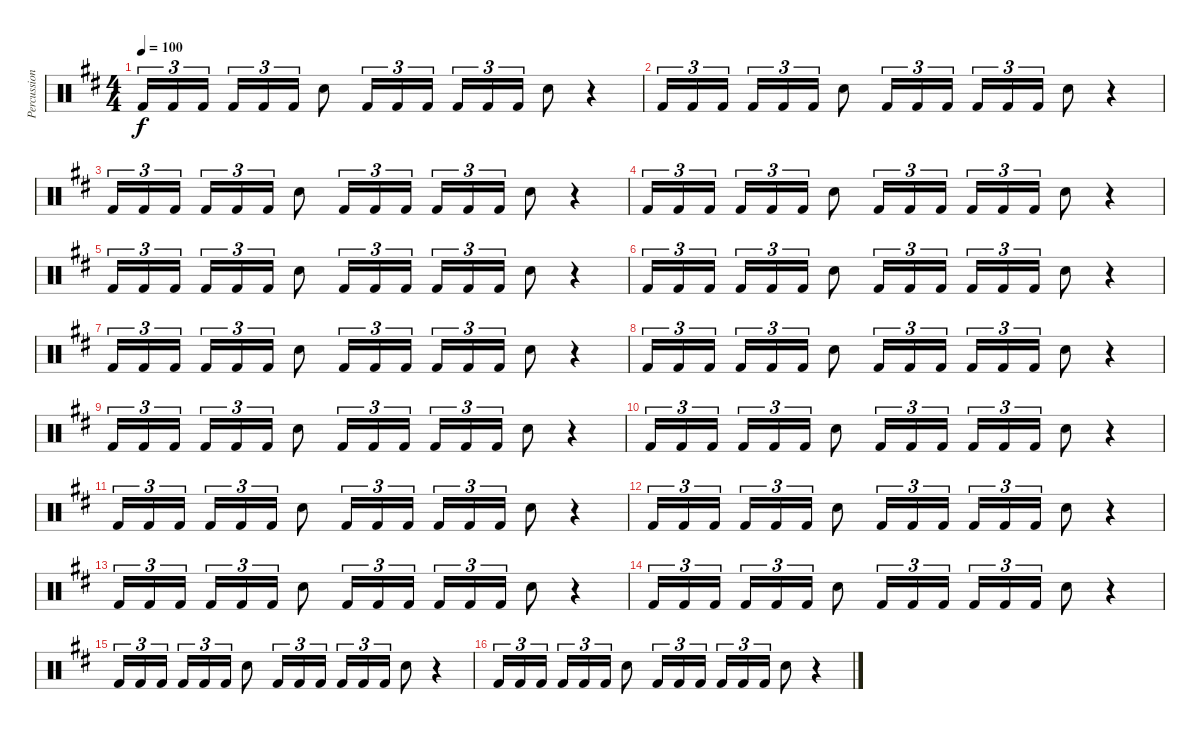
\track ("Percussion" "Percussion") {instrument percussion}
\staff {score}
\articulation defaults
\ts (4 4)
\tempo 100
\clef neutral
\ks d "Kick (hit) 2".16{tu (3 2) dy f} "Kick (hit) 2".16{tu (3 2)} "Kick (hit) 2".16{tu (3 2) beam splitsecondary} "Kick (hit) 2".16{tu (3 2)} "Kick (hit) 2".16{tu (3 2)} "Kick (hit) 2".16{tu (3 2)} "Electric Snare (hit)".8 "Kick (hit) 2".16{tu (3 2)} "Kick (hit) 2".16{tu (3 2)} "Kick (hit) 2".16{tu (3 2)} "Kick (hit) 2".16{tu (3 2)} "Kick (hit) 2".16{tu (3 2)} "Kick (hit) 2".16{tu (3 2)} "Electric Snare (hit)".8
r.4 |
"Kick (hit) 2".16{tu (3 2)} "Kick (hit) 2".16{tu (3 2)} "Kick (hit) 2".16{tu (3 2) beam splitsecondary} "Kick (hit) 2".16{tu (3 2)} "Kick (hit) 2".16{tu (3 2)} "Kick (hit) 2".16{tu (3 2)} "Electric Snare (hit)".8 "Kick (hit) 2".16{tu (3 2)} "Kick (hit) 2".16{tu (3 2)} "Kick (hit) 2".16{tu (3 2)} "Kick (hit) 2".16{tu (3 2)} "Kick (hit) 2".16{tu (3 2)} "Kick (hit) 2".16{tu (3 2)} "Electric Snare (hit)".8 r.4 |
"Kick (hit) 2".16{tu (3 2)} "Kick (hit) 2".16{tu (3 2)} "Kick (hit) 2".16{tu (3 2) beam splitsecondary} "Kick (hit) 2".16{tu (3 2)} "Kick (hit) 2".16{tu (3 2)} "Kick (hit) 2".16{tu (3 2)} "Electric Snare (hit)".8 "Kick (hit) 2".16{tu (3 2)} "Kick (hit) 2".16{tu (3 2)} "Kick (hit) 2".16{tu (3 2)} "Kick (hit) 2".16{tu (3 2)} "Kick (hit) 2".16{tu (3 2)} "Kick (hit) 2".16{tu (3 2)} "Electric Snare (hit)".8 r.4 |
"Kick (hit) 2".16{tu (3 2)} "Kick (hit) 2".16{tu (3 2)} "Kick (hit) 2".16{tu (3 2) beam splitsecondary} "Kick (hit) 2".16{tu (3 2)} "Kick (hit) 2".16{tu (3 2)} "Kick (hit) 2".16{tu (3 2)} "Electric Snare (hit)".8 "Kick (hit) 2".16{tu (3 2)} "Kick (hit) 2".16{tu (3 2)} "Kick (hit) 2".16{tu (3 2)} "Kick (hit) 2".16{tu (3 2)} "Kick (hit) 2".16{tu (3 2)} "Kick (hit) 2".16{tu (3 2)} "Electric Snare (hit)".8 r.4 |
"Kick (hit) 2".16{tu (3 2)} "Kick (hit) 2".16{tu (3 2)} "Kick (hit) 2".16{tu (3 2) beam splitsecondary} "Kick (hit) 2".16{tu (3 2)} "Kick (hit) 2".16{tu (3 2)} "Kick (hit) 2".16{tu (3 2)} "Electric Snare (hit)".8 "Kick (hit) 2".16{tu (3 2)} "Kick (hit) 2".16{tu (3 2)} "Kick (hit) 2".16{tu (3 2)} "Kick (hit) 2".16{tu (3 2)} "Kick (hit) 2".16{tu (3 2)} "Kick (hit) 2".16{tu (3 2)} "Electric Snare (hit)".8 r.4 |
"Kick (hit) 2".16{tu (3 2)} "Kick (hit) 2".16{tu (3 2)} "Kick (hit) 2".16{tu (3 2) beam splitsecondary} "Kick (hit) 2".16{tu (3 2)} "Kick (hit) 2".16{tu (3 2)} "Kick (hit) 2".16{tu (3 2)} "Electric Snare (hit)".8 "Kick (hit) 2".16{tu (3 2)} "Kick (hit) 2".16{tu (3 2)} "Kick (hit) 2".16{tu (3 2)} "Kick (hit) 2".16{tu (3 2)} "Kick (hit) 2".16{tu (3 2)} "Kick (hit) 2".16{tu (3 2)} "Electric Snare (hit)".8 r.4 |
"Kick (hit) 2".16{tu (3 2)} "Kick (hit) 2".16{tu (3 2)} "Kick (hit) 2".16{tu (3 2) beam splitsecondary} "Kick (hit) 2".16{tu (3 2)} "Kick (hit) 2".16{tu (3 2)} "Kick (hit) 2".16{tu (3 2)} "Electric Snare (hit)".8 "Kick (hit) 2".16{tu (3 2)} "Kick (hit) 2".16{tu (3 2)} "Kick (hit) 2".16{tu (3 2)} "Kick (hit) 2".16{tu (3 2)} "Kick (hit) 2".16{tu (3 2)} "Kick (hit) 2".16{tu (3 2)} "Electric Snare (hit)".8 r.4 |
"Kick (hit) 2".16{tu (3 2)} "Kick (hit) 2".16{tu (3 2)} "Kick (hit) 2".16{tu (3 2) beam splitsecondary} "Kick (hit) 2".16{tu (3 2)} "Kick (hit) 2".16{tu (3 2)} "Kick (hit) 2".16{tu (3 2)} "Electric Snare (hit)".8 "Kick (hit) 2".16{tu (3 2)} "Kick (hit) 2".16{tu (3 2)} "Kick (hit) 2".16{tu (3 2)} "Kick (hit) 2".16{tu (3 2)} "Kick (hit) 2".16{tu (3 2)} "Kick (hit) 2".16{tu (3 2)} "Electric Snare (hit)".8 r.4 |
"Kick (hit) 2".16{tu (3 2)} "Kick (hit) 2".16{tu (3 2)} "Kick (hit) 2".16{tu (3 2) beam splitsecondary} "Kick (hit) 2".16{tu (3 2)} "Kick (hit) 2".16{tu (3 2)} "Kick (hit) 2".16{tu (3 2)} "Electric Snare (hit)".8 "Kick (hit) 2".16{tu (3 2)} "Kick (hit) 2".16{tu (3 2)} "Kick (hit) 2".16{tu (3 2)} "Kick (hit) 2".16{tu (3 2)} "Kick (hit) 2".16{tu (3 2)} "Kick (hit) 2".16{tu (3 2)} "Electric Snare (hit)".8 r.4 |
"Kick (hit) 2".16{tu (3 2)} "Kick (hit) 2".16{tu (3 2)} "Kick (hit) 2".16{tu (3 2) beam splitsecondary} "Kick (hit) 2".16{tu (3 2)} "Kick (hit) 2".16{tu (3 2)} "Kick (hit) 2".16{tu (3 2)} "Electric Snare (hit)".8 "Kick (hit) 2".16{tu (3 2)} "Kick (hit) 2".16{tu (3 2)} "Kick (hit) 2".16{tu (3 2)} "Kick (hit) 2".16{tu (3 2)} "Kick (hit) 2".16{tu (3 2)} "Kick (hit) 2".16{tu (3 2)} "Electric Snare (hit)".8 r.4 |
"Kick (hit) 2".16{tu (3 2)} "Kick (hit) 2".16{tu (3 2)} "Kick (hit) 2".16{tu (3 2) beam splitsecondary} "Kick (hit) 2".16{tu (3 2)} "Kick (hit) 2".16{tu (3 2)} "Kick (hit) 2".16{tu (3 2)} "Electric Snare (hit)".8 "Kick (hit) 2".16{tu (3 2)} "Kick (hit) 2".16{tu (3 2)} "Kick (hit) 2".16{tu (3 2)} "Kick (hit) 2".16{tu (3 2)} "Kick (hit) 2".16{tu (3 2)} "Kick (hit) 2".16{tu (3 2)} "Electric Snare (hit)".8 r.4 |
"Kick (hit) 2".16{tu (3 2)} "Kick (hit) 2".16{tu (3 2)} "Kick (hit) 2".16{tu (3 2) beam splitsecondary} "Kick (hit) 2".16{tu (3 2)} "Kick (hit) 2".16{tu (3 2)} "Kick (hit) 2".16{tu (3 2)} "Electric Snare (hit)".8 "Kick (hit) 2".16{tu (3 2)} "Kick (hit) 2".16{tu (3 2)} "Kick (hit) 2".16{tu (3 2)} "Kick (hit) 2".16{tu (3 2)} "Kick (hit) 2".16{tu (3 2)} "Kick (hit) 2".16{tu (3 2)} "Electric Snare (hit)".8 r.4 |
"Kick (hit) 2".16{tu (3 2)} "Kick (hit) 2".16{tu (3 2)} "Kick (hit) 2".16{tu (3 2) beam splitsecondary} "Kick (hit) 2".16{tu (3 2)} "Kick (hit) 2".16{tu (3 2)} "Kick (hit) 2".16{tu (3 2)} "Electric Snare (hit)".8 "Kick (hit) 2".16{tu (3 2)} "Kick (hit) 2".16{tu (3 2)} "Kick (hit) 2".16{tu (3 2)} "Kick (hit) 2".16{tu (3 2)} "Kick (hit) 2".16{tu (3 2)} "Kick (hit) 2".16{tu (3 2)} "Electric Snare (hit)".8 r.4 |
"Kick (hit) 2".16{tu (3 2)} "Kick (hit) 2".16{tu (3 2)} "Kick (hit) 2".16{tu (3 2) beam splitsecondary} "Kick (hit) 2".16{tu (3 2)} "Kick (hit) 2".16{tu (3 2)} "Kick (hit) 2".16{tu (3 2)} "Electric Snare (hit)".8 "Kick (hit) 2".16{tu (3 2)} "Kick (hit) 2".16{tu (3 2)} "Kick (hit) 2".16{tu (3 2)} "Kick (hit) 2".16{tu (3 2)} "Kick (hit) 2".16{tu (3 2)} "Kick (hit) 2".16{tu (3 2)} "Electric Snare (hit)".8 r.4 |
"Kick (hit) 2".16{tu (3 2)} "Kick (hit) 2".16{tu (3 2)} "Kick (hit) 2".16{tu (3 2) beam splitsecondary} "Kick (hit) 2".16{tu (3 2)} "Kick (hit) 2".16{tu (3 2)} "Kick (hit) 2".16{tu (3 2)} "Electric Snare (hit)".8 "Kick (hit) 2".16{tu (3 2)} "Kick (hit) 2".16{tu (3 2)} "Kick (hit) 2".16{tu (3 2)} "Kick (hit) 2".16{tu (3 2)} "Kick (hit) 2".16{tu (3 2)} "Kick (hit) 2".16{tu (3 2)} "Electric Snare (hit)".8 r.4 |
"Kick (hit) 2".16{tu (3 2)} "Kick (hit) 2".16{tu (3 2)} "Kick (hit) 2".16{tu (3 2) beam splitsecondary} "Kick (hit) 2".16{tu (3 2)} "Kick (hit) 2".16{tu (3 2)} "Kick (hit) 2".16{tu (3 2)} "Electric Snare (hit)".8 "Kick (hit) 2".16{tu (3 2)} "Kick (hit) 2".16{tu (3 2)} "Kick (hit) 2".16{tu (3 2)} "Kick (hit) 2".16{tu (3 2)} "Kick (hit) 2".16{tu (3 2)} "Kick (hit) 2".16{tu (3 2)} "Electric Snare (hit)".8 r.4
